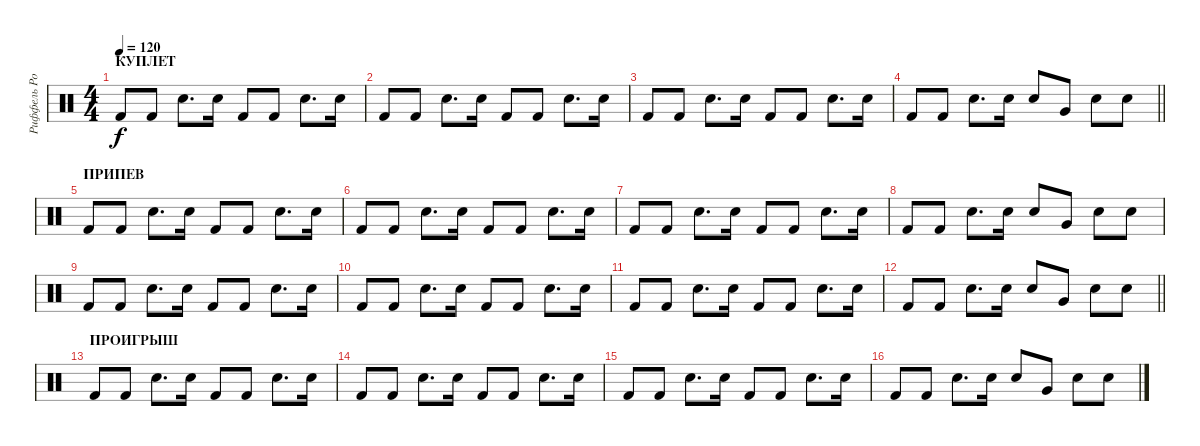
\track ("Риффель Роман (главные)" "Риффель Ро") {instrument percussion}
\staff {score}
\articulation defaults
\ts (4 4)
\section ("" "КУПЛЕТ")
\tempo 120
\clef neutral
\ks c "Kick (hit) 2".8{dy f} "Kick (hit) 2".8 "Electric Snare (hit)".8{d} "Electric Snare (hit)".16 "Kick (hit) 2".8 "Kick (hit) 2".8 "Electric Snare (hit)".8{d} "Electric Snare (hit)".16
|
"Kick (hit) 2".8 "Kick (hit) 2".8 "Electric Snare (hit)".8{d} "Electric Snare (hit)".16 "Kick (hit) 2".8 "Kick (hit) 2".8 "Electric Snare (hit)".8{d} "Electric Snare (hit)".16 |
"Kick (hit) 2".8 "Kick (hit) 2".8 "Electric Snare (hit)".8{d} "Electric Snare (hit)".16 "Kick (hit) 2".8 "Kick (hit) 2".8 "Electric Snare (hit)".8{d} "Electric Snare (hit)".16 |
\barLineRight lightlight "Kick (hit) 2".8 "Kick (hit) 2".8 "Electric Snare (hit)".8{d} "Electric Snare (hit)".16 "Electric Snare (hit)".8 "Very Low Tom (hit)".8 "Electric Snare (hit)".8 "Electric Snare (hit)".8
|
\section ("" "ПРИПЕВ")
"Kick (hit) 2".8 "Kick (hit) 2".8 "Electric Snare (hit)".8{d} "Electric Snare (hit)".16 "Kick (hit) 2".8 "Kick (hit) 2".8 "Electric Snare (hit)".8{d} "Electric Snare (hit)".16 |
"Kick (hit) 2".8 "Kick (hit) 2".8 "Electric Snare (hit)".8{d} "Electric Snare (hit)".16 "Kick (hit) 2".8 "Kick (hit) 2".8 "Electric Snare (hit)".8{d} "Electric Snare (hit)".16 |
"Kick (hit) 2".8 "Kick (hit) 2".8 "Electric Snare (hit)".8{d} "Electric Snare (hit)".16 "Kick (hit) 2".8 "Kick (hit) 2".8 "Electric Snare (hit)".8{d} "Electric Snare (hit)".16 |
"Kick (hit) 2".8 "Kick (hit) 2".8 "Electric Snare (hit)".8{d} "Electric Snare (hit)".16 "Electric Snare (hit)".8 "Very Low Tom (hit)".8 "Electric Snare (hit)".8 "Electric Snare (hit)".8 |
"Kick (hit) 2".8 "Kick (hit) 2".8 "Electric Snare (hit)".8{d} "Electric Snare (hit)".16 "Kick (hit) 2".8 "Kick (hit) 2".8 "Electric Snare (hit)".8{d} "Electric Snare (hit)".16 |
"Kick (hit) 2".8 "Kick (hit) 2".8 "Electric Snare (hit)".8{d} "Electric Snare (hit)".16 "Kick (hit) 2".8 "Kick (hit) 2".8 "Electric Snare (hit)".8{d} "Electric Snare (hit)".16 |
"Kick (hit) 2".8 "Kick (hit) 2".8 "Electric Snare (hit)".8{d} "Electric Snare (hit)".16 "Kick (hit) 2".8 "Kick (hit) 2".8 "Electric Snare (hit)".8{d} "Electric Snare (hit)".16 |
\barLineRight lightlight "Kick (hit) 2".8 "Kick (hit) 2".8 "Electric Snare (hit)".8{d} "Electric Snare (hit)".16 "Electric Snare (hit)".8 "Very Low Tom (hit)".8 "Electric Snare (hit)".8 "Electric Snare (hit)".8
|
\section ("" "ПРОИГРЫШ")
"Kick (hit) 2".8 "Kick (hit) 2".8 "Electric Snare (hit)".8{d} "Electric Snare (hit)".16 "Kick (hit) 2".8 "Kick (hit) 2".8 "Electric Snare (hit)".8{d} "Electric Snare (hit)".16 |
"Kick (hit) 2".8 "Kick (hit) 2".8 "Electric Snare (hit)".8{d} "Electric Snare (hit)".16 "Kick (hit) 2".8 "Kick (hit) 2".8 "Electric Snare (hit)".8{d} "Electric Snare (hit)".16 |
"Kick (hit) 2".8 "Kick (hit) 2".8 "Electric Snare (hit)".8{d} "Electric Snare (hit)".16 "Kick (hit) 2".8 "Kick (hit) 2".8 "Electric Snare (hit)".8{d} "Electric Snare (hit)".16 |
"Kick (hit) 2".8 "Kick (hit) 2".8 "Electric Snare (hit)".8{d} "Electric Snare (hit)".16 "Electric Snare (hit)".8 "Very Low Tom (hit)".8 "Electric Snare (hit)".8 "Electric Snare (hit)".8
